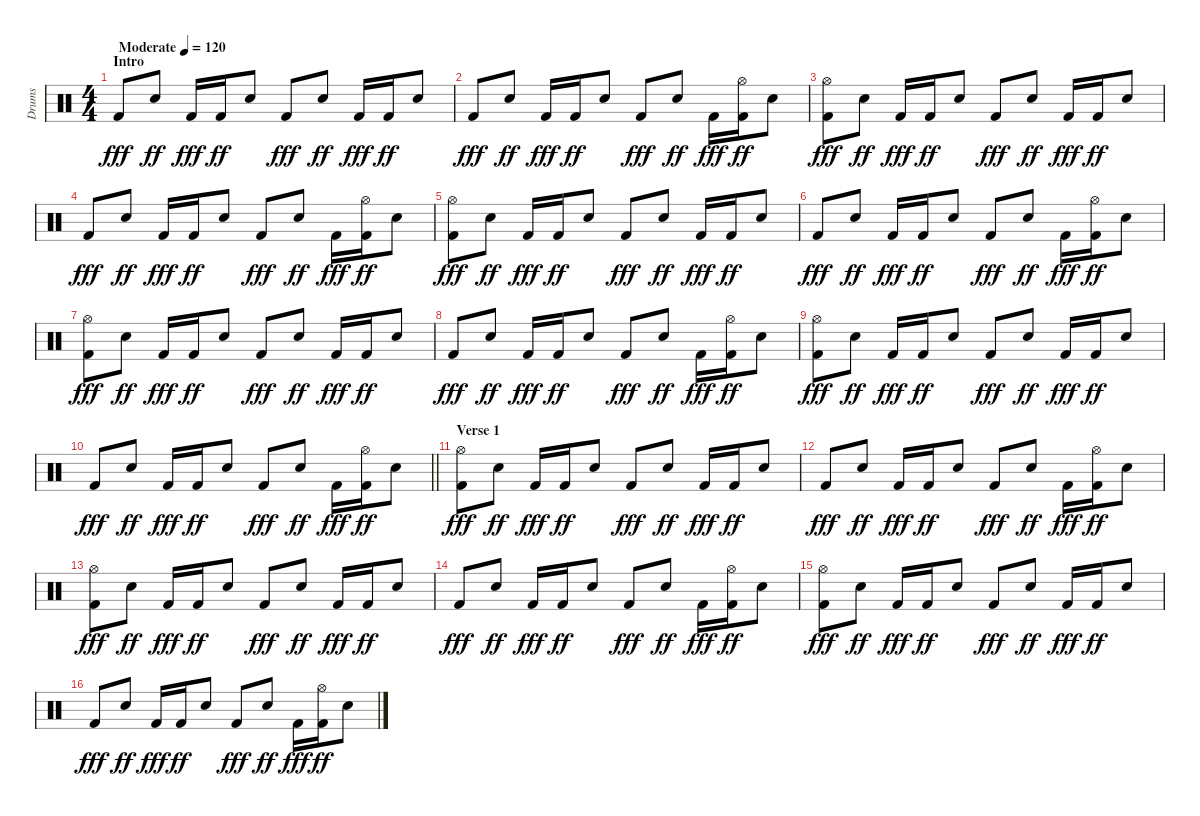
\track ("Drums" "Drums") {instrument percussion}
\staff {score}
\articulation defaults
\ts (4 4)
\section ("" "Intro")
\tempo (120 "Moderate")
\clef neutral
\ks c "Kick (hit) 2".8{dy fff} "Snare (hit) 2".8{dy ff} "Kick (hit) 2".16{dy fff} "Kick (hit) 2".16{dy ff} "Snare (hit) 2".8 "Kick (hit) 2".8{dy fff} "Snare (hit) 2".8{dy ff} "Kick (hit) 2".16{dy fff} "Kick (hit) 2".16{dy ff} "Snare (hit) 2".8
|
"Kick (hit) 2".8{dy fff} "Snare (hit) 2".8{dy ff} "Kick (hit) 2".16{dy fff} "Kick (hit) 2".16{dy ff} "Snare (hit) 2".8 "Kick (hit) 2".8{dy fff} "Snare (hit) 2".8{dy ff} "Kick (hit) 2".16{dy fff} ("Hi-Hat (open)" "Kick (hit) 2").16{dy ff} "Snare (hit) 2".8 |
("Hi-Hat (open)" "Kick (hit) 2").8{dy fff} "Snare (hit) 2".8{dy ff} "Kick (hit) 2".16{dy fff} "Kick (hit) 2".16{dy ff} "Snare (hit) 2".8 "Kick (hit) 2".8{dy fff} "Snare (hit) 2".8{dy ff} "Kick (hit) 2".16{dy fff} "Kick (hit) 2".16{dy ff} "Snare (hit) 2".8 |
"Kick (hit) 2".8{dy fff} "Snare (hit) 2".8{dy ff} "Kick (hit) 2".16{dy fff} "Kick (hit) 2".16{dy ff} "Snare (hit) 2".8 "Kick (hit) 2".8{dy fff} "Snare (hit) 2".8{dy ff} "Kick (hit) 2".16{dy fff} ("Hi-Hat (open)" "Kick (hit) 2").16{dy ff} "Snare (hit) 2".8 |
("Hi-Hat (open)" "Kick (hit) 2").8{dy fff} "Snare (hit) 2".8{dy ff} "Kick (hit) 2".16{dy fff} "Kick (hit) 2".16{dy ff} "Snare (hit) 2".8 "Kick (hit) 2".8{dy fff} "Snare (hit) 2".8{dy ff} "Kick (hit) 2".16{dy fff} "Kick (hit) 2".16{dy ff} "Snare (hit) 2".8 |
"Kick (hit) 2".8{dy fff} "Snare (hit) 2".8{dy ff} "Kick (hit) 2".16{dy fff} "Kick (hit) 2".16{dy ff} "Snare (hit) 2".8 "Kick (hit) 2".8{dy fff} "Snare (hit) 2".8{dy ff} "Kick (hit) 2".16{dy fff} ("Hi-Hat (open)" "Kick (hit) 2").16{dy ff} "Snare (hit) 2".8 |
("Hi-Hat (open)" "Kick (hit) 2").8{dy fff} "Snare (hit) 2".8{dy ff} "Kick (hit) 2".16{dy fff} "Kick (hit) 2".16{dy ff} "Snare (hit) 2".8 "Kick (hit) 2".8{dy fff} "Snare (hit) 2".8{dy ff} "Kick (hit) 2".16{dy fff} "Kick (hit) 2".16{dy ff} "Snare (hit) 2".8 |
"Kick (hit) 2".8{dy fff} "Snare (hit) 2".8{dy ff} "Kick (hit) 2".16{dy fff} "Kick (hit) 2".16{dy ff} "Snare (hit) 2".8 "Kick (hit) 2".8{dy fff} "Snare (hit) 2".8{dy ff} "Kick (hit) 2".16{dy fff} ("Hi-Hat (open)" "Kick (hit) 2").16{dy ff} "Snare (hit) 2".8 |
("Hi-Hat (open)" "Kick (hit) 2").8{dy fff} "Snare (hit) 2".8{dy ff} "Kick (hit) 2".16{dy fff} "Kick (hit) 2".16{dy ff} "Snare (hit) 2".8 "Kick (hit) 2".8{dy fff} "Snare (hit) 2".8{dy ff} "Kick (hit) 2".16{dy fff} "Kick (hit) 2".16{dy ff} "Snare (hit) 2".8 |
\barLineRight lightlight "Kick (hit) 2".8{dy fff} "Snare (hit) 2".8{dy ff} "Kick (hit) 2".16{dy fff} "Kick (hit) 2".16{dy ff} "Snare (hit) 2".8 "Kick (hit) 2".8{dy fff} "Snare (hit) 2".8{dy ff} "Kick (hit) 2".16{dy fff}
("Hi-Hat (open)" "Kick (hit) 2").16{dy ff} "Snare (hit) 2".8 |
\section ("" "Verse 1")
("Hi-Hat (open)" "Kick (hit) 2").8{dy fff} "Snare (hit) 2".8{dy ff} "Kick (hit) 2".16{dy fff} "Kick (hit) 2".16{dy ff} "Snare (hit) 2".8 "Kick (hit) 2".8{dy fff} "Snare (hit) 2".8{dy ff} "Kick (hit) 2".16{dy fff} "Kick (hit) 2".16{dy ff} "Snare (hit) 2".8 |
"Kick (hit) 2".8{dy fff} "Snare (hit) 2".8{dy ff} "Kick (hit) 2".16{dy fff} "Kick (hit) 2".16{dy ff} "Snare (hit) 2".8 "Kick (hit) 2".8{dy fff} "Snare (hit) 2".8{dy ff} "Kick (hit) 2".16{dy fff} ("Hi-Hat (open)" "Kick (hit) 2").16{dy ff} "Snare (hit) 2".8 |
("Hi-Hat (open)" "Kick (hit) 2").8{dy fff} "Snare (hit) 2".8{dy ff} "Kick (hit) 2".16{dy fff} "Kick (hit) 2".16{dy ff} "Snare (hit) 2".8 "Kick (hit) 2".8{dy fff} "Snare (hit) 2".8{dy ff} "Kick (hit) 2".16{dy fff} "Kick (hit) 2".16{dy ff} "Snare (hit) 2".8 |
"Kick (hit) 2".8{dy fff} "Snare (hit) 2".8{dy ff} "Kick (hit) 2".16{dy fff} "Kick (hit) 2".16{dy ff} "Snare (hit) 2".8 "Kick (hit) 2".8{dy fff} "Snare (hit) 2".8{dy ff} "Kick (hit) 2".16{dy fff} ("Hi-Hat (open)" "Kick (hit) 2").16{dy ff} "Snare (hit) 2".8 |
("Hi-Hat (open)" "Kick (hit) 2").8{dy fff} "Snare (hit) 2".8{dy ff} "Kick (hit) 2".16{dy fff} "Kick (hit) 2".16{dy ff} "Snare (hit) 2".8 "Kick (hit) 2".8{dy fff} "Snare (hit) 2".8{dy ff} "Kick (hit) 2".16{dy fff} "Kick (hit) 2".16{dy ff} "Snare (hit) 2".8 |
"Kick (hit) 2".8{dy fff} "Snare (hit) 2".8{dy ff} "Kick (hit) 2".16{dy fff} "Kick (hit) 2".16{dy ff} "Snare (hit) 2".8 "Kick (hit) 2".8{dy fff} "Snare (hit) 2".8{dy ff} "Kick (hit) 2".16{dy fff} ("Hi-Hat (open)" "Kick (hit) 2").16{dy ff} "Snare (hit) 2".8
